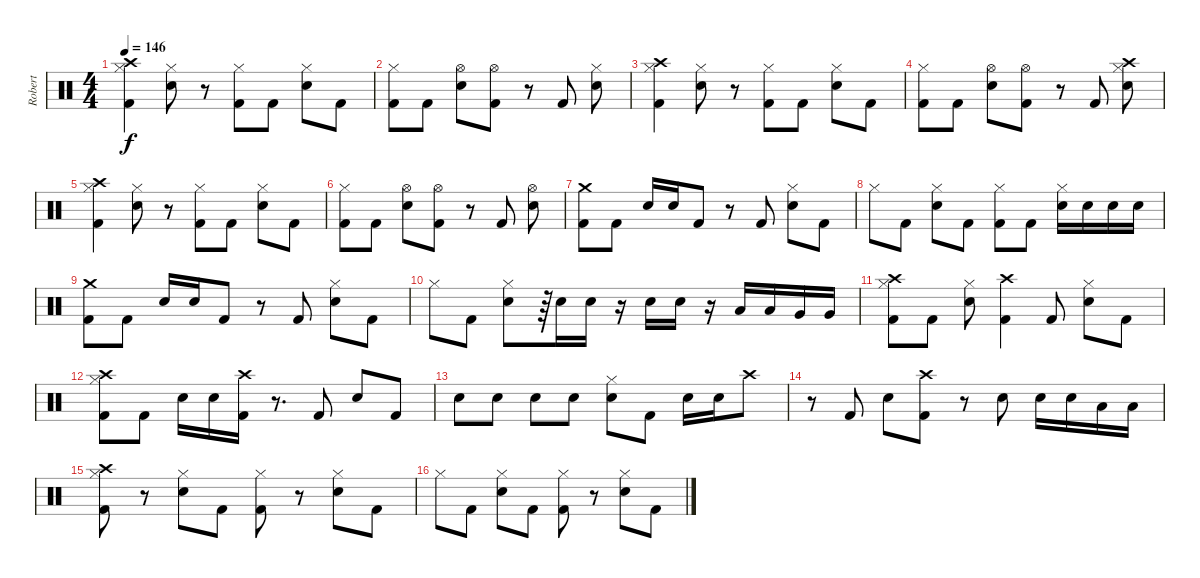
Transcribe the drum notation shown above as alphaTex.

\track ("Robert" "Robert") {instrument percussion}
\staff {score}
\articulation defaults
\ts (4 4)
\tempo 146
\clef neutral
\ks c
("Crash high (hit)" "Hi-Hat (closed)" "Kick (hit) 2").4{dy f} ("Hi-Hat (closed)" "Electric Snare (hit)").8 r.8 ("Hi-Hat (closed)" "Kick (hit) 2").8 "Kick (hit) 2".8 ("Hi-Hat (closed)" "Electric Snare (hit)").8 "Kick (hit) 2".8 |
("Hi-Hat (closed)" "Kick (hit) 2").8 "Kick (hit) 2".8 ("Hi-Hat (open)" "Electric Snare (hit)").8 ("Hi-Hat (open)" "Kick (hit) 2").8 r.8 "Kick (hit) 2".8 ("Hi-Hat (closed)" "Electric Snare (hit)").8 |
("Crash high (hit)" "Hi-Hat (closed)" "Kick (hit) 2").4 ("Hi-Hat (closed)" "Electric Snare (hit)").8 r.8 ("Hi-Hat (closed)" "Kick (hit) 2").8 "Kick (hit) 2".8 ("Hi-Hat (closed)" "Electric Snare (hit)").8 "Kick (hit) 2".8 |
("Hi-Hat (closed)" "Kick (hit) 2").8 "Kick (hit) 2".8 ("Hi-Hat (open)" "Electric Snare (hit)").8 ("Hi-Hat (open)" "Kick (hit) 2").8 r.8 "Kick (hit) 2".8 ("Crash high (hit)" "Hi-Hat (closed)" "Electric Snare (hit)").8 |
("Crash high (hit)" "Hi-Hat (closed)" "Kick (hit) 2").4 ("Hi-Hat (closed)" "Electric Snare (hit)").8 r.8 ("Hi-Hat (closed)" "Kick (hit) 2").8 "Kick (hit) 2".8 ("Hi-Hat (closed)" "Electric Snare (hit)").8 "Kick (hit) 2".8 |
("Hi-Hat (closed)" "Kick (hit) 2").8 "Kick (hit) 2".8 ("Hi-Hat (open)" "Electric Snare (hit)").8 ("Hi-Hat (open)" "Kick (hit) 2").8 r.8 "Kick (hit) 2".8 ("Hi-Hat (open)" "Electric Snare (hit)").8 |
("Crash medium (hit)" "Kick (hit) 2").8 "Kick (hit) 2".8 "Electric Snare (hit)".16 "Electric Snare (hit)".16 "Kick (hit) 2".8 r.8 "Kick (hit) 2".8 ("Hi-Hat (closed)" "Electric Snare (hit)").8 "Kick (hit) 2".8 |
"Hi-Hat (closed)".8 "Kick (hit) 2".8 ("Hi-Hat (closed)" "Electric Snare (hit)").8 "Kick (hit) 2".8 ("Hi-Hat (closed)" "Kick (hit) 2").8 "Kick (hit) 2".8 ("Hi-Hat (closed)" "Electric Snare (hit)").16 "Electric Snare (hit)".16 "Electric Snare (hit)".16 "Electric Snare (hit)".16 |
("Crash medium (hit)" "Kick (hit) 2").8 "Kick (hit) 2".8 "Electric Snare (hit)".16 "Electric Snare (hit)".16 "Kick (hit) 2".8 r.8 "Kick (hit) 2".8 ("Hi-Hat (closed)" "Electric Snare (hit)").8 "Kick (hit) 2".8 |
"Hi-Hat (closed)".8 "Kick (hit) 2".8 ("Hi-Hat (closed)" "Electric Snare (hit)").8 r.64 "Electric Snare (hit)".16 "Electric Snare (hit)".16 r.16 "Electric Snare (hit)".16 "Electric Snare (hit)".16 r.16 "Low Tom (hit)".16 "Low Tom (hit)".16 "Very Low Tom (hit)".16 "Very Low Tom (hit)".16 |
("Crash high (hit)" "Hi-Hat (closed)" "Kick (hit) 2").8 "Kick (hit) 2".8 ("Hi-Hat (closed)" "Electric Snare (hit)").8 ("Crash high (hit)" "Kick (hit) 2").4 "Kick (hit) 2".8 ("Hi-Hat (closed)" "Electric Snare (hit)").8 "Kick (hit) 2".8 |
("Crash high (hit)" "Hi-Hat (closed)" "Kick (hit) 2").8 "Kick (hit) 2".8 "Electric Snare (hit)".16 "Electric Snare (hit)".16 ("Crash high (hit)" "Kick (hit) 2").16 r.8{d} "Kick (hit) 2".8 "Electric Snare (hit)".8 "Kick (hit) 2".8 |
"Electric Snare (hit)".8 "Electric Snare (hit)".8 "Electric Snare (hit)".8 "Electric Snare (hit)".8 ("Hi-Hat (closed)" "Electric Snare (hit)").8 "Kick (hit) 2".8 "Electric Snare (hit)".16 "Electric Snare (hit)".16 "Crash high (hit)".8 |
r.8 "Kick (hit) 2".8 "Electric Snare (hit)".8 ("Crash high (hit)" "Kick (hit) 2").8 r.8 "Electric Snare (hit)".8 "Electric Snare (hit)".16 "Electric Snare (hit)".16 "Low Tom (hit)".16 "Low Tom (hit)".16 |
("Crash high (hit)" "Hi-Hat (closed)" "Kick (hit) 2").8 r.8 ("Hi-Hat (closed)" "Electric Snare (hit)").8 "Kick (hit) 2".8 ("Hi-Hat (closed)" "Kick (hit) 2").8 r.8 ("Hi-Hat (closed)" "Electric Snare (hit)").8 "Kick (hit) 2".8 |
"Hi-Hat (closed)".8 "Kick (hit) 2".8 ("Hi-Hat (closed)" "Electric Snare (hit)").8 "Kick (hit) 2".8 ("Hi-Hat (closed)" "Kick (hit) 2").8 r.8 ("Hi-Hat (closed)" "Electric Snare (hit)").8 "Kick (hit) 2".8
